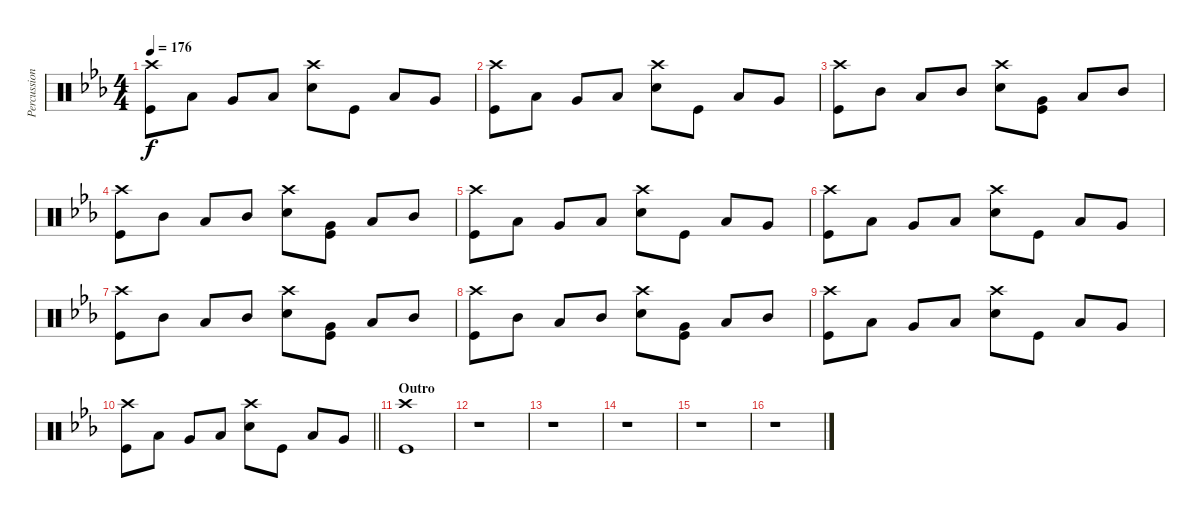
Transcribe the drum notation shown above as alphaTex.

\track ("Percussion" "Percussion") {instrument percussion}
\staff {score}
\articulation defaults
\ts (4 4)
\tempo 176
\clef neutral
\ks eb
("Crash high (hit)" "Kick (hit)").8{dy f} "Low Tom (hit)".8 "Very Low Tom (hit)".8 "Low Tom (hit)".8 ("Crash high (hit)" "Electric Snare (hit)").8 "Kick (hit)".8 "Low Floor Tom (hit)".8 "Very Low Tom (hit)".8 |
("Crash high (hit)" "Kick (hit)").8 "Low Tom (hit)".8 "Very Low Tom (hit)".8 "Low Tom (hit)".8 ("Crash high (hit)" "Electric Snare (hit)").8 "Kick (hit)".8 "Low Floor Tom (hit)".8 "Very Low Tom (hit)".8 |
("Crash high (hit)" "Kick (hit)").8 "Mid Tom (hit)".8 "Low Tom (hit)".8 "Mid Tom (hit)".8 ("Crash high (hit)" "Electric Snare (hit)").8 ("Very Low Tom (hit)" "Kick (hit)").8 "Low Tom (hit)".8 "Mid Tom (hit)".8 |
("Crash high (hit)" "Kick (hit)").8 "Mid Tom (hit)".8 "Low Tom (hit)".8 "Mid Tom (hit)".8 ("Crash high (hit)" "Electric Snare (hit)").8 ("Very Low Tom (hit)" "Kick (hit)").8 "Low Tom (hit)".8 "Mid Tom (hit)".8 |
("Crash high (hit)" "Kick (hit)").8 "Low Tom (hit)".8 "Very Low Tom (hit)".8 "Low Tom (hit)".8 ("Crash high (hit)" "Electric Snare (hit)").8 "Kick (hit)".8 "Low Floor Tom (hit)".8 "Very Low Tom (hit)".8 |
("Crash high (hit)" "Kick (hit)").8 "Low Tom (hit)".8 "Very Low Tom (hit)".8 "Low Tom (hit)".8 ("Crash high (hit)" "Electric Snare (hit)").8 "Kick (hit)".8 "Low Floor Tom (hit)".8 "Very Low Tom (hit)".8 |
("Crash high (hit)" "Kick (hit)").8 "Mid Tom (hit)".8 "Low Tom (hit)".8 "Mid Tom (hit)".8 ("Crash high (hit)" "Electric Snare (hit)").8 ("Very Low Tom (hit)" "Kick (hit)").8 "Low Tom (hit)".8 "Mid Tom (hit)".8 |
("Crash high (hit)" "Kick (hit)").8 "Mid Tom (hit)".8 "Low Tom (hit)".8 "Mid Tom (hit)".8 ("Crash high (hit)" "Electric Snare (hit)").8 ("Very Low Tom (hit)" "Kick (hit)").8 "Low Tom (hit)".8 "Mid Tom (hit)".8 |
("Crash high (hit)" "Kick (hit)").8 "Low Tom (hit)".8 "Very Low Tom (hit)".8 "Low Tom (hit)".8 ("Crash high (hit)" "Electric Snare (hit)").8 "Kick (hit)".8 "Low Floor Tom (hit)".8 "Very Low Tom (hit)".8 |
\barLineRight lightlight
("Crash high (hit)" "Kick (hit)").8 "Low Tom (hit)".8 "Very Low Tom (hit)".8 "Low Tom (hit)".8 ("Crash high (hit)" "Electric Snare (hit)").8 "Kick (hit)".8 "Low Floor Tom (hit)".8 "Very Low Tom (hit)".8 |
\section ("" "Outro")
("Crash high (hit)" "Kick (hit)").1 |
r.1 |
r.1 |
r.1 |
r.1 |
r.1
